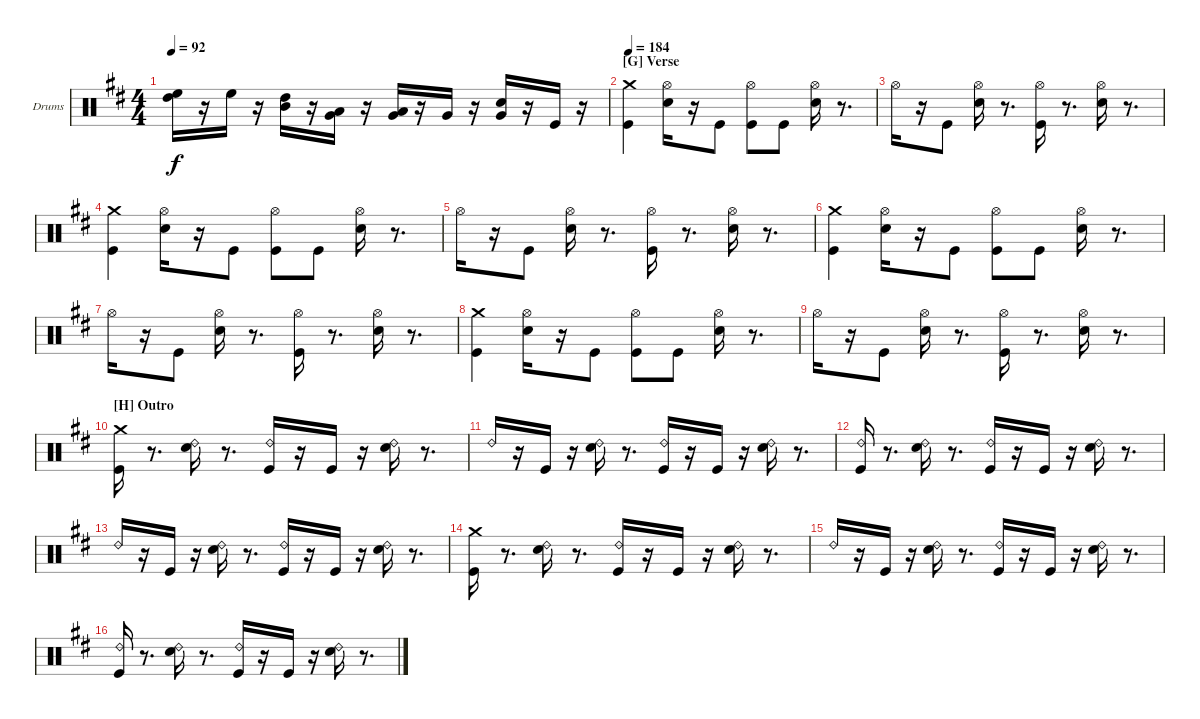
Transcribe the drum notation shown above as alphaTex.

\defaultSystemsLayout 4
\bracketExtendMode groupsimilarinstruments
\firstSystemTrackNameOrientation horizontal
\otherSystemsTrackNameOrientation horizontal
\track ("Drumkit" "Drums") {instrument percussion}
\staff {score}
\articulation defaults
\ts (4 4)
\tempo 92
\clef neutral
\ks d
("High Floor Tom (hit)" "High Tom (hit)").16{dy f} r.16 "High Floor Tom (hit)".16 r.16 ("Mid Tom (hit)" "High Tom (hit)").16 r.16 ("Low Tom (hit)" "Very Low Tom (hit)").16 r.16 ("Very Low Tom (hit)" "Low Tom (hit)").16 r.16 "Very Low Tom (hit)".16 r.16 ("Very Low Tom (hit)" "Snare (hit) 2").16 r.16 "Kick (hit)".16 r.16 |
\section ("G" "Verse")
\tempo 184
("Crash medium (hit)" "Kick (hit)").4 ("Hi-Hat (open)" "Snare (hit) 2").16 r.16 "Kick (hit)".8 ("Hi-Hat (open)" "Kick (hit)").8 "Kick (hit)".8 ("Hi-Hat (open)" "Snare (hit) 2").16 r.8{d} |
"Hi-Hat (open)".16 r.16 "Kick (hit)".8 ("Hi-Hat (open)" "Snare (hit) 2").16 r.8{d} ("Hi-Hat (open)" "Kick (hit)").16 r.8{d} ("Hi-Hat (open)" "Snare (hit) 2").16 r.8{d} |
("Crash medium (hit)" "Kick (hit)").4 ("Hi-Hat (open)" "Snare (hit) 2").16 r.16 "Kick (hit)".8 ("Hi-Hat (open)" "Kick (hit)").8 "Kick (hit)".8 ("Hi-Hat (open)" "Snare (hit) 2").16 r.8{d} |
"Hi-Hat (open)".16 r.16 "Kick (hit)".8 ("Hi-Hat (open)" "Snare (hit) 2").16 r.8{d} ("Hi-Hat (open)" "Kick (hit)").16 r.8{d} ("Hi-Hat (open)" "Snare (hit) 2").16 r.8{d} |
("Crash medium (hit)" "Kick (hit)").4 ("Hi-Hat (open)" "Snare (hit) 2").16 r.16 "Kick (hit)".8 ("Hi-Hat (open)" "Kick (hit)").8 "Kick (hit)".8 ("Hi-Hat (open)" "Snare (hit) 2").16 r.8{d} |
"Hi-Hat (open)".16 r.16 "Kick (hit)".8 ("Hi-Hat (open)" "Snare (hit) 2").16 r.8{d} ("Hi-Hat (open)" "Kick (hit)").16 r.8{d} ("Hi-Hat (open)" "Snare (hit) 2").16 r.8{d} |
("Crash medium (hit)" "Kick (hit)").4 ("Hi-Hat (open)" "Snare (hit) 2").16 r.16 "Kick (hit)".8 ("Hi-Hat (open)" "Kick (hit)").8 "Kick (hit)".8 ("Hi-Hat (open)" "Snare (hit) 2").16 r.8{d} |
"Hi-Hat (open)".16 r.16 "Kick (hit)".8 ("Hi-Hat (open)" "Snare (hit) 2").16 r.8{d} ("Hi-Hat (open)" "Kick (hit)").16 r.8{d} ("Hi-Hat (open)" "Snare (hit) 2").16 r.8{d} |
\section ("H" "Outro")
("Crash medium (hit)" "Kick (hit)").16 r.8{d} ("Snare (hit) 2" "Ride (bell) 2").16 r.8{d} ("Kick (hit)" "Ride (bell) 2").16 r.16 "Kick (hit)".16 r.16 ("Snare (hit) 2" "Ride (bell) 2").16 r.8{d} |
"Ride (bell) 2".16 r.16 "Kick (hit)".16 r.16 ("Snare (hit) 2" "Ride (bell) 2").16 r.8{d} ("Kick (hit)" "Ride (bell) 2").16 r.16 "Kick (hit)".16 r.16 ("Snare (hit) 2" "Ride (bell) 2").16 r.8{d} |
("Kick (hit)" "Ride (bell) 2").16 r.8{d} ("Snare (hit) 2" "Ride (bell) 2").16 r.8{d} ("Kick (hit)" "Ride (bell) 2").16 r.16 "Kick (hit)".16 r.16 ("Snare (hit) 2" "Ride (bell) 2").16 r.8{d} |
"Ride (bell) 2".16 r.16 "Kick (hit)".16 r.16 ("Snare (hit) 2" "Ride (bell) 2").16 r.8{d} ("Kick (hit)" "Ride (bell) 2").16 r.16 "Kick (hit)".16 r.16 ("Snare (hit) 2" "Ride (bell) 2").16 r.8{d} |
("Crash medium (hit)" "Kick (hit)").16 r.8{d} ("Snare (hit) 2" "Ride (bell) 2").16 r.8{d} ("Kick (hit)" "Ride (bell) 2").16 r.16 "Kick (hit)".16 r.16 ("Snare (hit) 2" "Ride (bell) 2").16 r.8{d} |
"Ride (bell) 2".16 r.16 "Kick (hit)".16 r.16 ("Snare (hit) 2" "Ride (bell) 2").16 r.8{d} ("Kick (hit)" "Ride (bell) 2").16 r.16 "Kick (hit)".16 r.16 ("Snare (hit) 2" "Ride (bell) 2").16 r.8{d} |
("Kick (hit)" "Ride (bell) 2").16 r.8{d} ("Snare (hit) 2" "Ride (bell) 2").16 r.8{d} ("Kick (hit)" "Ride (bell) 2").16 r.16 "Kick (hit)".16 r.16 ("Snare (hit) 2" "Ride (bell) 2").16 r.8{d}
